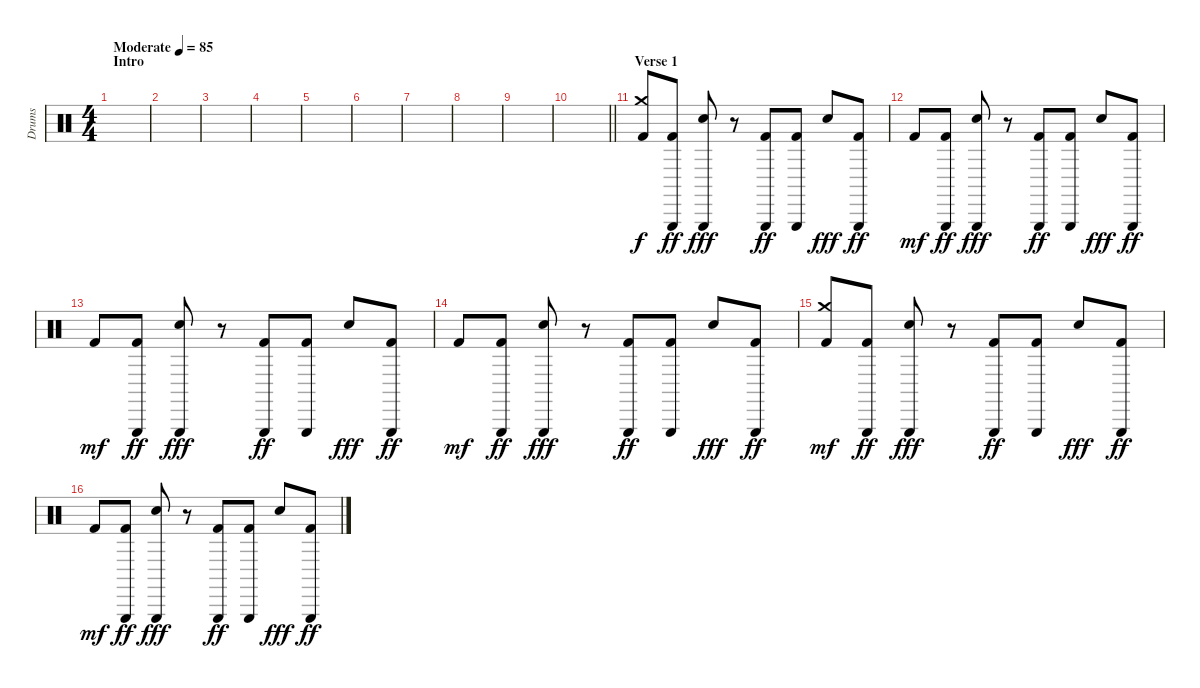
\track ("Drums" "Drums") {instrument percussion}
\staff {score}
\articulation defaults
\ts (4 4)
\section ("" "Intro")
\tempo (85 "Moderate")
\clef neutral
\ks c
|
|
|
|
|
|
|
|
|
\barLineRight lightlight
|
\section ("" "Verse 1")
("Crash medium (hit)" "Kick (hit) 2").8 ("Triangle (hit)" "Kick (hit) 2").8{dy ff} ("Triangle (hit)" "Electric Snare (hit)").8{dy fff} r.8 ("Triangle (hit)" "Kick (hit) 2").8{dy ff} ("Triangle (hit)" "Kick (hit) 2").8 "Electric Snare (hit)".8{dy fff} ("Triangle (hit)" "Kick (hit) 2").8{dy ff} |
"Kick (hit) 2".8{dy mf} ("Triangle (hit)" "Kick (hit) 2").8{dy ff} ("Triangle (hit)" "Electric Snare (hit)").8{dy fff} r.8 ("Triangle (hit)" "Kick (hit) 2").8{dy ff} ("Triangle (hit)" "Kick (hit) 2").8 "Electric Snare (hit)".8{dy fff} ("Triangle (hit)" "Kick (hit) 2").8{dy ff} |
"Kick (hit) 2".8{dy mf} ("Triangle (hit)" "Kick (hit) 2").8{dy ff} ("Triangle (hit)" "Electric Snare (hit)").8{dy fff} r.8 ("Triangle (hit)" "Kick (hit) 2").8{dy ff} ("Triangle (hit)" "Kick (hit) 2").8 "Electric Snare (hit)".8{dy fff} ("Triangle (hit)" "Kick (hit) 2").8{dy ff} |
"Kick (hit) 2".8{dy mf} ("Triangle (hit)" "Kick (hit) 2").8{dy ff} ("Triangle (hit)" "Electric Snare (hit)").8{dy fff} r.8 ("Triangle (hit)" "Kick (hit) 2").8{dy ff} ("Triangle (hit)" "Kick (hit) 2").8 "Electric Snare (hit)".8{dy fff} ("Triangle (hit)" "Kick (hit) 2").8{dy ff} |
("Crash medium (hit)" "Kick (hit) 2").8{dy mf} ("Triangle (hit)" "Kick (hit) 2").8{dy ff} ("Triangle (hit)" "Electric Snare (hit)").8{dy fff} r.8 ("Triangle (hit)" "Kick (hit) 2").8{dy ff} ("Triangle (hit)" "Kick (hit) 2").8 "Electric Snare (hit)".8{dy fff} ("Triangle (hit)" "Kick (hit) 2").8{dy ff} |
"Kick (hit) 2".8{dy mf} ("Triangle (hit)" "Kick (hit) 2").8{dy ff} ("Triangle (hit)" "Electric Snare (hit)").8{dy fff} r.8 ("Triangle (hit)" "Kick (hit) 2").8{dy ff} ("Triangle (hit)" "Kick (hit) 2").8 "Electric Snare (hit)".8{dy fff} ("Triangle (hit)" "Kick (hit) 2").8{dy ff}
